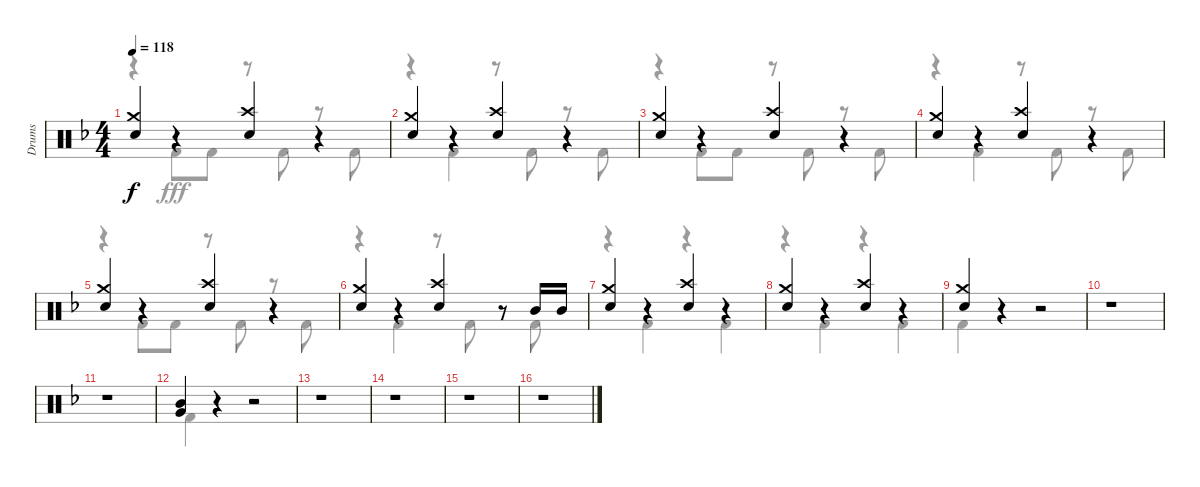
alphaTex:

\track ("Drums" "Drums") {instrument percussion}
\staff {score}
\articulation defaults
\voice
\ts (4 4)
\tempo 118
\clef neutral
\ks f
("Crash medium (hit)" "Snare (hit) 2").4{dy f} r.4 ("Crash high (hit)" "Snare (hit) 2").4 r.4 |
("Crash medium (hit)" "Snare (hit) 2").4 r.4 ("Crash high (hit)" "Snare (hit) 2").4 r.4 |
("Crash medium (hit)" "Snare (hit) 2").4 r.4 ("Crash high (hit)" "Snare (hit) 2").4 r.4 |
("Crash medium (hit)" "Snare (hit) 2").4 r.4 ("Crash high (hit)" "Snare (hit) 2").4 r.4 |
("Crash medium (hit)" "Snare (hit) 2").4 r.4 ("Crash high (hit)" "Snare (hit) 2").4 r.4 |
("Crash medium (hit)" "Snare (hit) 2").4 r.4 ("Crash high (hit)" "Snare (hit) 2").4 r.8 "Mid Tom (hit)".16 "Mid Tom (hit)".16 |
("Crash medium (hit)" "Snare (hit) 2").4 r.4 ("Crash high (hit)" "Snare (hit) 2").4 r.4 |
("Crash medium (hit)" "Snare (hit) 2").4 r.4 ("Crash high (hit)" "Snare (hit) 2").4 r.4 |
("Crash medium (hit)" "Snare (hit) 2").4 r.4 r.2 |
r.1 |
r.1 |
("Mid Tom (hit)" "Very Low Tom (hit)").4 r.4 r.2 |
r.1 |
r.1 |
r.1 |
r.1
\voice
\clef neutral
\ottava regular
\simile none
\ks f
r.4{dy fff} "Kick (hit) 2".8 "Kick (hit) 2".8 r.8 "Kick (hit) 2".8 r.8 "Kick (hit) 2".8 |
r.4 "Kick (hit) 2".4 r.8 "Kick (hit) 2".8 r.8 "Kick (hit) 2".8 |
r.4 "Kick (hit) 2".8 "Kick (hit) 2".8 r.8 "Kick (hit) 2".8 r.8 "Kick (hit) 2".8 |
r.4 "Kick (hit) 2".4 r.8 "Kick (hit) 2".8 r.8 "Kick (hit) 2".8 |
r.4 "Kick (hit) 2".8 "Kick (hit) 2".8 r.8 "Kick (hit) 2".8 r.8 "Kick (hit) 2".8 |
r.4 "Kick (hit) 2".4 r.8 "Kick (hit) 2".8 r.8 "Kick (hit) 2".8 |
r.4 "Kick (hit) 2".4 r.4 "Kick (hit) 2".4 |
r.4 "Kick (hit) 2".4 r.4 "Kick (hit) 2".4 |
"Kick (hit) 2".4 r.4 r.2 |
r.1 |
r.1 |
"Kick (hit) 2".4 r.4 r.2 |
r.1 |
r.1 |
r.1 |
r.1
